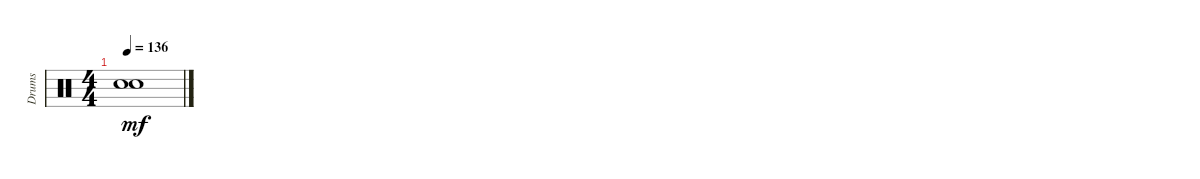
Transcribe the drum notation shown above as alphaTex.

\track ("Drums" "Drums") {instrument percussion}
\staff {score}
\articulation defaults
\ts (4 4)
\tempo 136
\clef neutral
\ks c
("Snare (hit)"{t} "Snare (hit)"{t}).1{dy mf}
